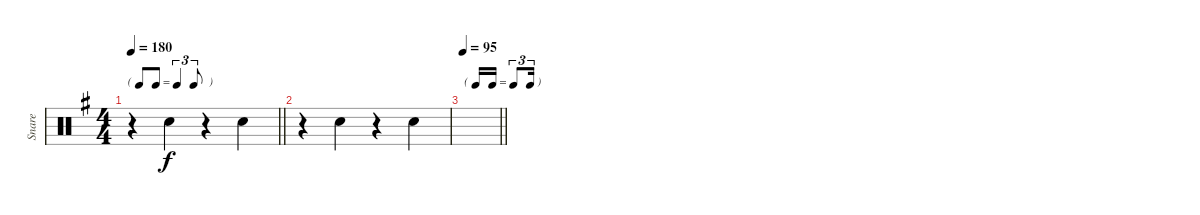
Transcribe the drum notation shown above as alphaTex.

\track ("Snare" "Snare") {instrument percussion}
\staff {score}
\articulation defaults
\ts (4 4)
\tf triplet8th
\tempo 180
\clef neutral
\barLineRight lightlight
\ks eminor
r.4{dy f} "Snare (hit) 2".4 r.4 "Snare (hit) 2".4 |
r.4 "Snare (hit) 2".4 r.4 "Snare (hit) 2".4 |
\tf triplet16th
\tempo 95
\barLineRight lightlight
